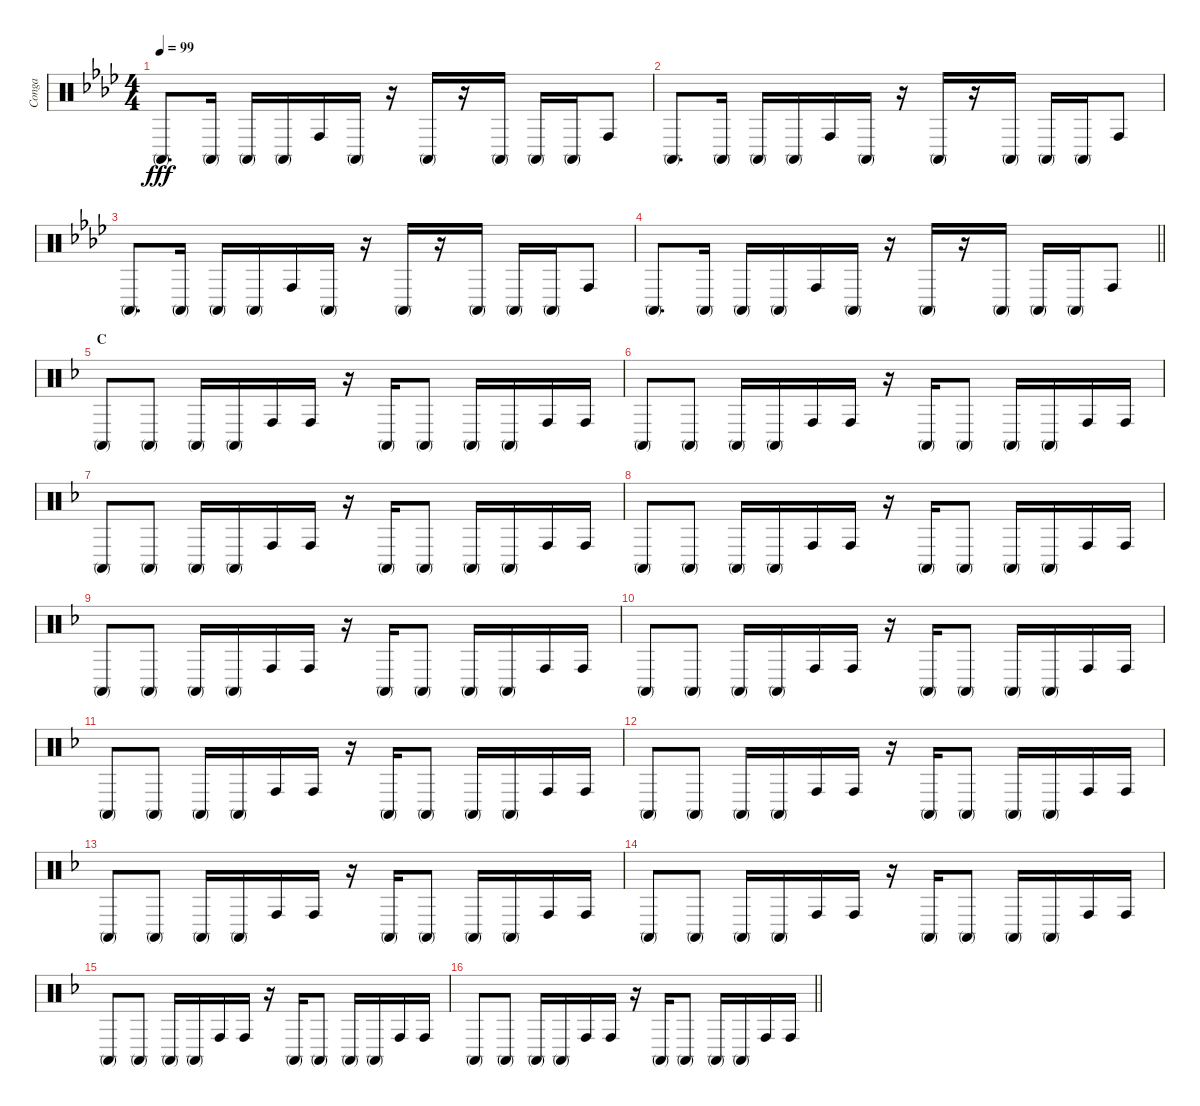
\track ("Conga" "Conga") {instrument percussion}
\staff {score}
\articulation defaults
\ts (4 4)
\tempo 99
\clef neutral
\ks ab "Conga high (mute)".8{d dy fff} "Conga high (mute)".16 "Conga high (mute)".16 "Conga high (mute)".16 "Conga high (hit)".16 "Conga high (mute)".16
r.16 "Conga high (mute)".16 r.16 "Conga high (mute)".16 "Conga high (mute)".16 "Conga high (mute)".16 "Conga high (hit)".8 |
"Conga high (mute)".8{d} "Conga high (mute)".16 "Conga high (mute)".16 "Conga high (mute)".16 "Conga high (hit)".16 "Conga high (mute)".16 r.16 "Conga high (mute)".16 r.16 "Conga high (mute)".16 "Conga high (mute)".16 "Conga high (mute)".16 "Conga high (hit)".8 |
"Conga high (mute)".8{d} "Conga high (mute)".16 "Conga high (mute)".16 "Conga high (mute)".16 "Conga high (hit)".16 "Conga high (mute)".16 r.16 "Conga high (mute)".16 r.16 "Conga high (mute)".16 "Conga high (mute)".16 "Conga high (mute)".16 "Conga high (hit)".8 |
\barLineRight lightlight "Conga high (mute)".8{d} "Conga high (mute)".16 "Conga high (mute)".16 "Conga high (mute)".16 "Conga high (hit)".16 "Conga high (mute)".16
r.16 "Conga high (mute)".16 r.16 "Conga high (mute)".16 "Conga high (mute)".16 "Conga high (mute)".16 "Conga high (hit)".8 |
\section ("" "C")
\ks f "Conga high (mute)".8 "Conga high (mute)".8 "Conga high (mute)".16 "Conga high (mute)".16 "Conga high (hit)".16 "Conga high (hit)".16
r.16 "Conga high (mute)".16 "Conga high (mute)".8 "Conga high (mute)".16 "Conga high (mute)".16 "Conga high (hit)".16 "Conga high (hit)".16 |
"Conga high (mute)".8 "Conga high (mute)".8 "Conga high (mute)".16 "Conga high (mute)".16 "Conga high (hit)".16 "Conga high (hit)".16 r.16 "Conga high (mute)".16 "Conga high (mute)".8 "Conga high (mute)".16 "Conga high (mute)".16 "Conga high (hit)".16 "Conga high (hit)".16 |
"Conga high (mute)".8 "Conga high (mute)".8 "Conga high (mute)".16 "Conga high (mute)".16 "Conga high (hit)".16 "Conga high (hit)".16 r.16 "Conga high (mute)".16 "Conga high (mute)".8 "Conga high (mute)".16 "Conga high (mute)".16 "Conga high (hit)".16 "Conga high (hit)".16 |
"Conga high (mute)".8 "Conga high (mute)".8 "Conga high (mute)".16 "Conga high (mute)".16 "Conga high (hit)".16 "Conga high (hit)".16 r.16 "Conga high (mute)".16 "Conga high (mute)".8 "Conga high (mute)".16 "Conga high (mute)".16 "Conga high (hit)".16 "Conga high (hit)".16 |
"Conga high (mute)".8 "Conga high (mute)".8 "Conga high (mute)".16 "Conga high (mute)".16 "Conga high (hit)".16 "Conga high (hit)".16 r.16 "Conga high (mute)".16 "Conga high (mute)".8 "Conga high (mute)".16 "Conga high (mute)".16 "Conga high (hit)".16 "Conga high (hit)".16 |
"Conga high (mute)".8 "Conga high (mute)".8 "Conga high (mute)".16 "Conga high (mute)".16 "Conga high (hit)".16 "Conga high (hit)".16 r.16 "Conga high (mute)".16 "Conga high (mute)".8 "Conga high (mute)".16 "Conga high (mute)".16 "Conga high (hit)".16 "Conga high (hit)".16 |
"Conga high (mute)".8 "Conga high (mute)".8 "Conga high (mute)".16 "Conga high (mute)".16 "Conga high (hit)".16 "Conga high (hit)".16 r.16 "Conga high (mute)".16 "Conga high (mute)".8 "Conga high (mute)".16 "Conga high (mute)".16 "Conga high (hit)".16 "Conga high (hit)".16 |
"Conga high (mute)".8 "Conga high (mute)".8 "Conga high (mute)".16 "Conga high (mute)".16 "Conga high (hit)".16 "Conga high (hit)".16 r.16 "Conga high (mute)".16 "Conga high (mute)".8 "Conga high (mute)".16 "Conga high (mute)".16 "Conga high (hit)".16 "Conga high (hit)".16 |
"Conga high (mute)".8 "Conga high (mute)".8 "Conga high (mute)".16 "Conga high (mute)".16 "Conga high (hit)".16 "Conga high (hit)".16 r.16 "Conga high (mute)".16 "Conga high (mute)".8 "Conga high (mute)".16 "Conga high (mute)".16 "Conga high (hit)".16 "Conga high (hit)".16 |
"Conga high (mute)".8 "Conga high (mute)".8 "Conga high (mute)".16 "Conga high (mute)".16 "Conga high (hit)".16 "Conga high (hit)".16 r.16 "Conga high (mute)".16 "Conga high (mute)".8 "Conga high (mute)".16 "Conga high (mute)".16 "Conga high (hit)".16 "Conga high (hit)".16 |
"Conga high (mute)".8 "Conga high (mute)".8 "Conga high (mute)".16 "Conga high (mute)".16 "Conga high (hit)".16 "Conga high (hit)".16 r.16 "Conga high (mute)".16 "Conga high (mute)".8 "Conga high (mute)".16 "Conga high (mute)".16 "Conga high (hit)".16 "Conga high (hit)".16 |
\barLineRight lightlight "Conga high (mute)".8 "Conga high (mute)".8 "Conga high (mute)".16 "Conga high (mute)".16 "Conga high (hit)".16 "Conga high (hit)".16
r.16 "Conga high (mute)".16 "Conga high (mute)".8 "Conga high (mute)".16 "Conga high (mute)".16 "Conga high (hit)".16 "Conga high (hit)".16
